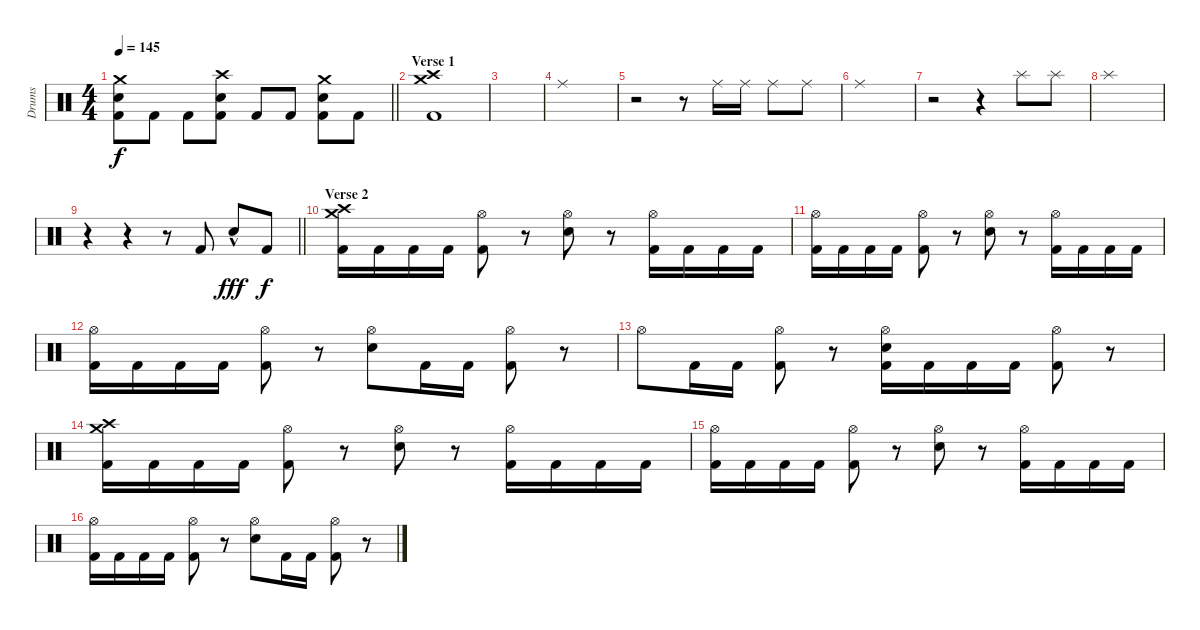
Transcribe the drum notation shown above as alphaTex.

\track ("Drums" "Drums") {instrument percussion}
\staff {score}
\articulation defaults
\ts (4 4)
\tempo 145
\clef neutral
\barLineRight lightlight
\ks c
("Crash medium (hit)" "Electric Snare (hit)" "Kick (hit) 2").8{dy f} "Kick (hit) 2".8 "Kick (hit) 2".8 ("Crash high (hit)" "Electric Snare (hit)" "Kick (hit) 2").8 "Kick (hit) 2".8 "Kick (hit) 2".8 ("Crash medium (hit)" "Electric Snare (hit)" "Kick (hit) 2").8 "Kick (hit) 2".8 |
\section ("" "Verse 1")
("Crash medium (hit)" "Crash high (hit)" "Kick (hit) 2").1 |
|
"Ride (middle)".1 |
r.2 r.8 "Ride (middle)".16 "Ride (middle)".16 "Ride (middle)".8 "Ride (middle)".8 |
"Ride (middle)".1 |
r.2 r.4 "Splash (hit)".8 "Splash (hit)".8 |
"Splash (hit)".1 |
\barLineRight lightlight
r.4 r.4 r.8 "Kick (hit) 2".8 "Electric Snare (hit)"{hac}.8{dy fff} "Kick (hit) 2".8{dy f} |
\section ("" "Verse 2")
("Crash high (hit)" "Crash medium (hit)" "Kick (hit) 2").16 "Kick (hit) 2".16 "Kick (hit) 2".16 "Kick (hit) 2".16 ("Hi-Hat (open)" "Kick (hit) 2").8 r.8 ("Hi-Hat (open)" "Electric Snare (hit)").8 r.8 ("Hi-Hat (open)" "Kick (hit) 2").16 "Kick (hit) 2".16 "Kick (hit) 2".16 "Kick (hit) 2".16 |
("Hi-Hat (open)" "Kick (hit) 2").16 "Kick (hit) 2".16 "Kick (hit) 2".16 "Kick (hit) 2".16 ("Hi-Hat (open)" "Kick (hit) 2").8 r.8 ("Hi-Hat (open)" "Electric Snare (hit)").8 r.8 ("Hi-Hat (open)" "Kick (hit) 2").16 "Kick (hit) 2".16 "Kick (hit) 2".16 "Kick (hit) 2".16 |
("Hi-Hat (open)" "Kick (hit) 2").16 "Kick (hit) 2".16 "Kick (hit) 2".16 "Kick (hit) 2".16 ("Hi-Hat (open)" "Kick (hit) 2").8 r.8 ("Hi-Hat (open)" "Electric Snare (hit)").8 "Kick (hit) 2".16 "Kick (hit) 2".16 ("Hi-Hat (open)" "Kick (hit) 2").8 r.8 |
"Hi-Hat (open)".8 "Kick (hit) 2".16 "Kick (hit) 2".16 ("Hi-Hat (open)" "Kick (hit) 2").8 r.8 ("Hi-Hat (open)" "Electric Snare (hit)" "Kick (hit) 2").16 "Kick (hit) 2".16 "Kick (hit) 2".16 "Kick (hit) 2".16 ("Hi-Hat (open)" "Kick (hit) 2").8 r.8 |
("Crash high (hit)" "Crash medium (hit)" "Kick (hit) 2").16 "Kick (hit) 2".16 "Kick (hit) 2".16 "Kick (hit) 2".16 ("Hi-Hat (open)" "Kick (hit) 2").8 r.8 ("Hi-Hat (open)" "Electric Snare (hit)").8 r.8 ("Hi-Hat (open)" "Kick (hit) 2").16 "Kick (hit) 2".16 "Kick (hit) 2".16 "Kick (hit) 2".16 |
("Hi-Hat (open)" "Kick (hit) 2").16 "Kick (hit) 2".16 "Kick (hit) 2".16 "Kick (hit) 2".16 ("Hi-Hat (open)" "Kick (hit) 2").8 r.8 ("Hi-Hat (open)" "Electric Snare (hit)").8 r.8 ("Hi-Hat (open)" "Kick (hit) 2").16 "Kick (hit) 2".16 "Kick (hit) 2".16 "Kick (hit) 2".16 |
("Hi-Hat (open)" "Kick (hit) 2").16 "Kick (hit) 2".16 "Kick (hit) 2".16 "Kick (hit) 2".16 ("Hi-Hat (open)" "Kick (hit) 2").8 r.8 ("Hi-Hat (open)" "Electric Snare (hit)").8 "Kick (hit) 2".16 "Kick (hit) 2".16 ("Hi-Hat (open)" "Kick (hit) 2").8 r.8
